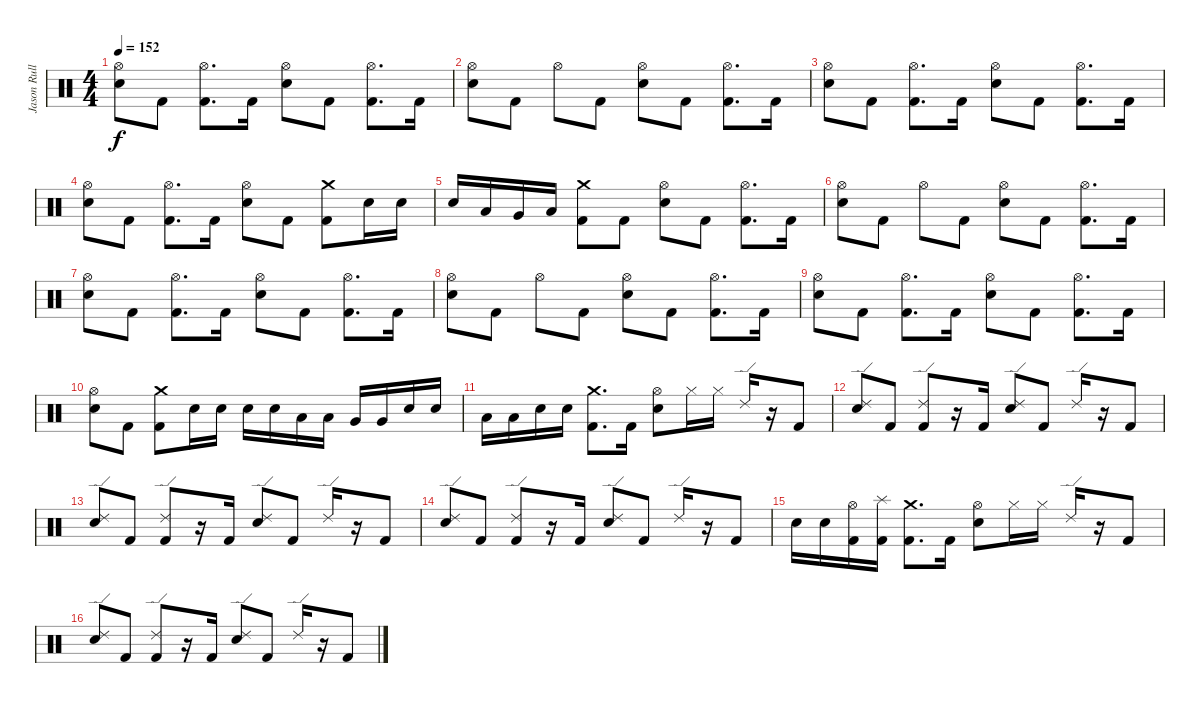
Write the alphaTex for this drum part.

\track ("Jason Rullo" "Jason Rull") {instrument percussion}
\staff {score}
\articulation defaults
\ts (4 4)
\tempo 152
\clef neutral
\ks c
("Hi-Hat (open)" "Electric Snare (hit)").8{dy f} "Kick (hit) 2".8 ("Hi-Hat (open)" "Kick (hit) 2").8{d} "Kick (hit) 2".16 ("Hi-Hat (open)" "Electric Snare (hit)").8 "Kick (hit) 2".8 ("Hi-Hat (open)" "Kick (hit) 2").8{d} "Kick (hit) 2".16 |
("Hi-Hat (open)" "Electric Snare (hit)").8 "Kick (hit) 2".8 "Hi-Hat (open)".8 "Kick (hit) 2".8 ("Hi-Hat (open)" "Electric Snare (hit)").8 "Kick (hit) 2".8 ("Hi-Hat (open)" "Kick (hit) 2").8{d} "Kick (hit) 2".16 |
("Hi-Hat (open)" "Electric Snare (hit)").8 "Kick (hit) 2".8 ("Hi-Hat (open)" "Kick (hit) 2").8{d} "Kick (hit) 2".16 ("Hi-Hat (open)" "Electric Snare (hit)").8 "Kick (hit) 2".8 ("Hi-Hat (open)" "Kick (hit) 2").8{d} "Kick (hit) 2".16 |
("Hi-Hat (open)" "Electric Snare (hit)").8 "Kick (hit) 2".8 ("Hi-Hat (open)" "Kick (hit) 2").8{d} "Kick (hit) 2".16 ("Hi-Hat (open)" "Electric Snare (hit)").8 "Kick (hit) 2".8 ("Crash medium (hit)" "Kick (hit) 2").8 "Electric Snare (hit)".16{volume 12} "Electric Snare (hit)".16{volume 13} |
"Electric Snare (hit)".16{volume 14} "Low Tom (hit)".16{volume 14} "Very Low Tom (hit)".16{volume 15} "Low Floor Tom (hit)".16{volume 16} ("Crash medium (hit)" "Kick (hit) 2").8 "Kick (hit) 2".8 ("Hi-Hat (open)" "Electric Snare (hit)").8 "Kick (hit) 2".8 ("Hi-Hat (open)" "Kick (hit) 2").8{d} "Kick (hit) 2".16 |
("Hi-Hat (open)" "Electric Snare (hit)").8 "Kick (hit) 2".8 "Hi-Hat (open)".8 "Kick (hit) 2".8 ("Hi-Hat (open)" "Electric Snare (hit)").8 "Kick (hit) 2".8 ("Hi-Hat (open)" "Kick (hit) 2").8{d} "Kick (hit) 2".16 |
("Hi-Hat (open)" "Electric Snare (hit)").8 "Kick (hit) 2".8 ("Hi-Hat (open)" "Kick (hit) 2").8{d} "Kick (hit) 2".16 ("Hi-Hat (open)" "Electric Snare (hit)").8 "Kick (hit) 2".8 ("Hi-Hat (open)" "Kick (hit) 2").8{d} "Kick (hit) 2".16 |
("Hi-Hat (open)" "Electric Snare (hit)").8 "Kick (hit) 2".8 "Hi-Hat (open)".8 "Kick (hit) 2".8 ("Hi-Hat (open)" "Electric Snare (hit)").8 "Kick (hit) 2".8 ("Hi-Hat (open)" "Kick (hit) 2").8{d} "Kick (hit) 2".16 |
("Hi-Hat (open)" "Electric Snare (hit)").8 "Kick (hit) 2".8 ("Hi-Hat (open)" "Kick (hit) 2").8{d} "Kick (hit) 2".16 ("Hi-Hat (open)" "Electric Snare (hit)").8 "Kick (hit) 2".8 ("Hi-Hat (open)" "Kick (hit) 2").8{d} "Kick (hit) 2".16 |
("Hi-Hat (open)" "Electric Snare (hit)").8 "Kick (hit) 2".8 ("Crash medium (hit)" "Kick (hit) 2").8 "Electric Snare (hit)".16 "Electric Snare (hit)".16 "Electric Snare (hit)".16 "Electric Snare (hit)".16 "Low Tom (hit)".16 "Low Tom (hit)".16 "Very Low Tom (hit)".16 "Very Low Tom (hit)".16 "Electric Snare (hit)".16 "Electric Snare (hit)".16 |
"Low Floor Tom (hit)".16 "Low Floor Tom (hit)".16 "Electric Snare (hit)".16 "Electric Snare (hit)".16 ("Crash medium (hit)" "Kick (hit) 2").8{d} "Kick (hit) 2".16 ("Hi-Hat (open)" "Electric Snare (hit)").8 "Hi-Hat (closed)".16 "Hi-Hat (closed)".16 "Ride (edge) 2".16 r.16 "Kick (hit) 2".8 |
("Ride (edge) 2" "Electric Snare (hit)").8 "Kick (hit) 2".8 ("Ride (edge) 2" "Kick (hit) 2").8 r.16 "Kick (hit) 2".16 ("Electric Snare (hit)" "Ride (edge) 2").8 "Kick (hit) 2".8 "Ride (edge) 2".16 r.16 "Kick (hit) 2".8 |
("Electric Snare (hit)" "Ride (edge) 2").8 "Kick (hit) 2".8 ("Ride (edge) 2" "Kick (hit) 2").8 r.16 "Kick (hit) 2".16 ("Electric Snare (hit)" "Ride (edge) 2").8 "Kick (hit) 2".8 "Ride (edge) 2".16 r.16 "Kick (hit) 2".8 |
("Electric Snare (hit)" "Ride (edge) 2").8 "Kick (hit) 2".8 ("Ride (edge) 2" "Kick (hit) 2").8 r.16 "Kick (hit) 2".16 ("Electric Snare (hit)" "Ride (edge) 2").8 "Kick (hit) 2".8 "Ride (edge) 2".16 r.16 "Kick (hit) 2".8 |
"Electric Snare (hit)".16 "Electric Snare (hit)".16 ("Kick (hit) 2" "Hi-Hat (open)").16 ("Kick (hit) 2" "Splash (hit)").16 ("Crash medium (hit)" "Kick (hit) 2").8{d} "Kick (hit) 2".16 ("Hi-Hat (open)" "Electric Snare (hit)").8 "Hi-Hat (closed)".16 "Hi-Hat (closed)".16 "Ride (edge) 2".16 r.16 "Kick (hit) 2".8 |
("Ride (edge) 2" "Electric Snare (hit)").8 "Kick (hit) 2".8 ("Ride (edge) 2" "Kick (hit) 2").8 r.16 "Kick (hit) 2".16 ("Electric Snare (hit)" "Ride (edge) 2").8 "Kick (hit) 2".8 "Ride (edge) 2".16 r.16 "Kick (hit) 2".8
